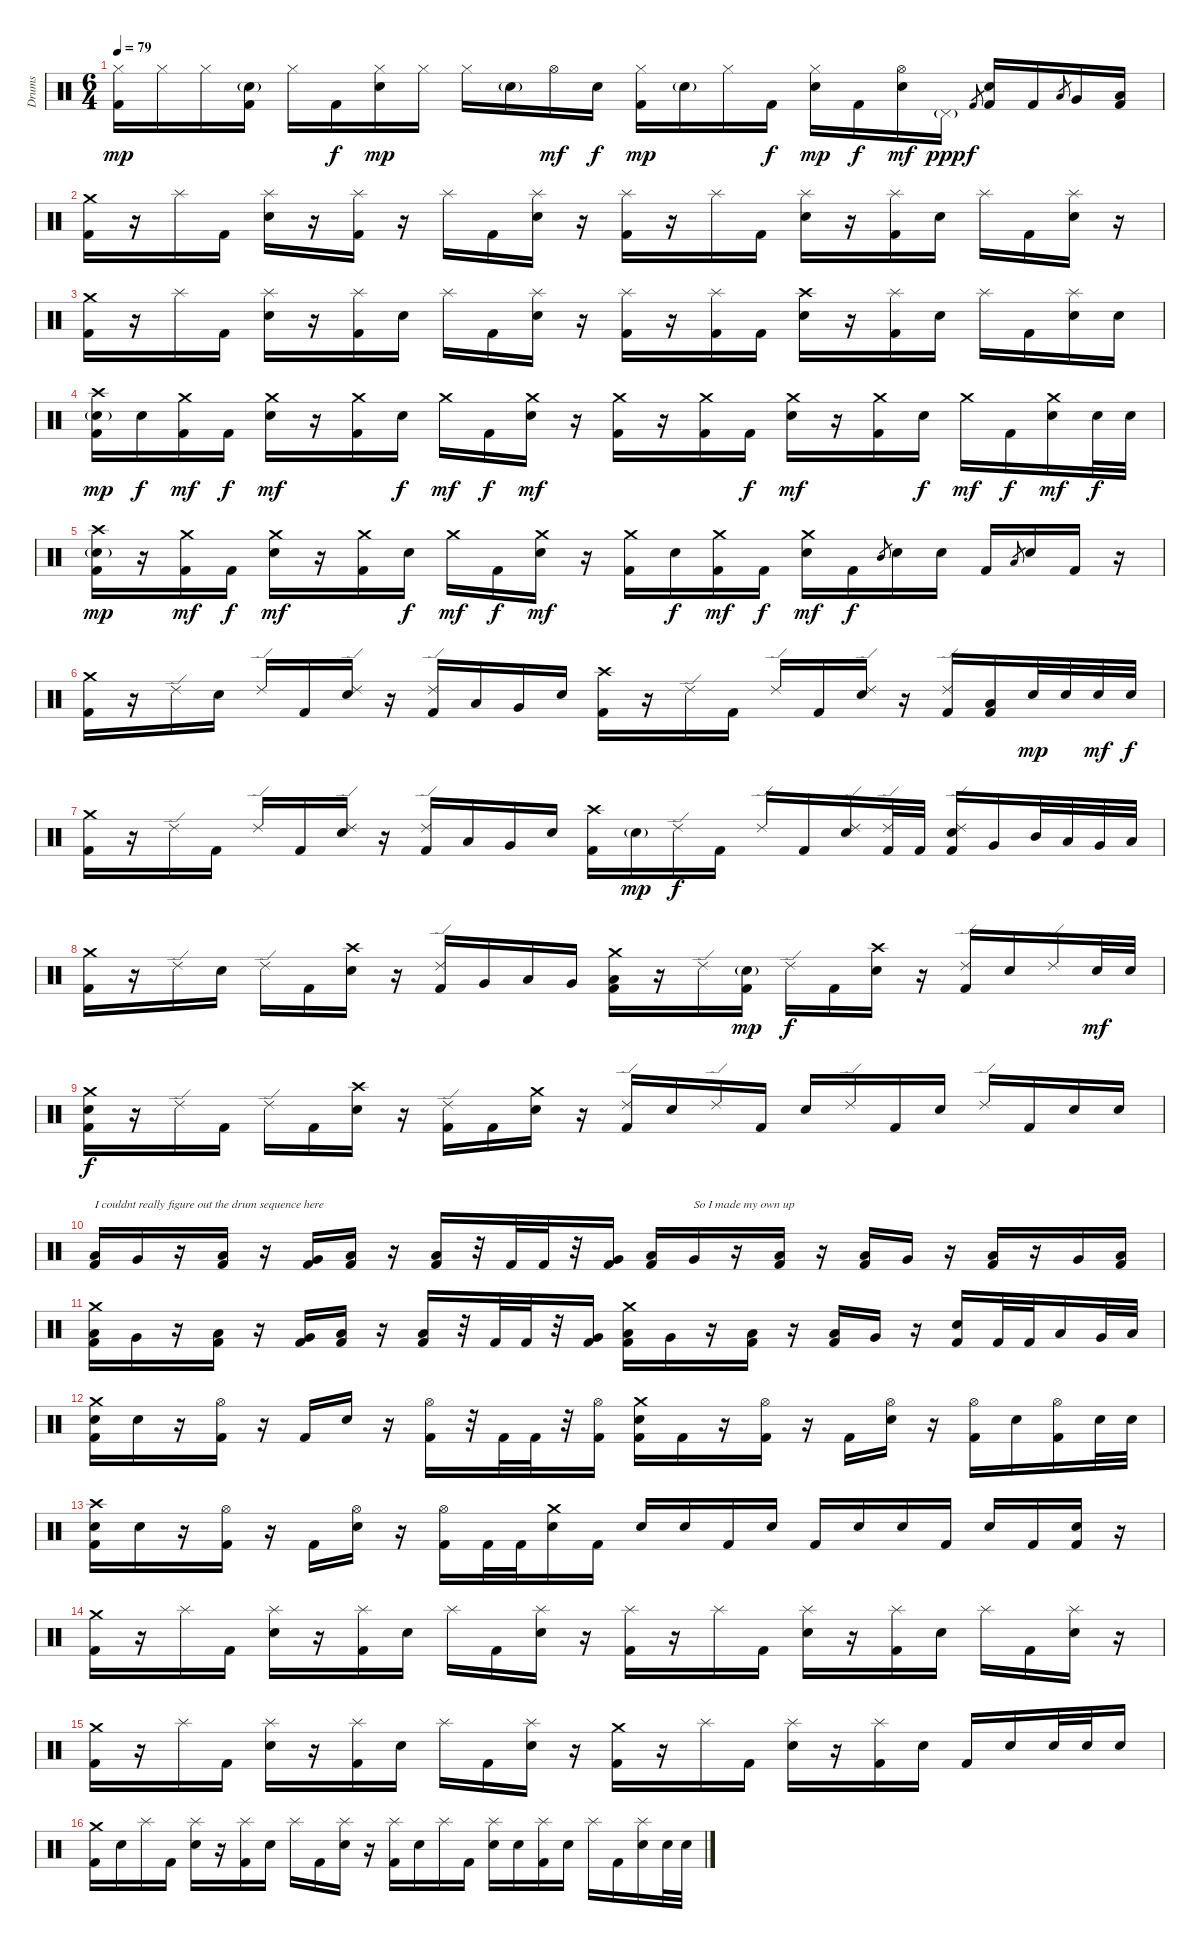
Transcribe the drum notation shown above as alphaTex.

\track ("Drums" "Drums") {instrument percussion}
\staff {score}
\articulation defaults
\ts (6 4)
\tempo 79
\clef neutral
\ks c
("Hi-Hat (closed)" "Kick (hit) 2").16{dy mp} "Hi-Hat (closed)".16 "Hi-Hat (closed)".16 ("Electric Snare (hit)"{g} "Kick (hit) 2").16 "Hi-Hat (closed)".16 "Kick (hit) 2".16{dy f} ("Hi-Hat (closed)" "Electric Snare (hit)").16{dy mp} "Hi-Hat (closed)".16 "Hi-Hat (closed)".16 "Electric Snare (hit)"{g}.16 "Hi-Hat (open)".16{dy mf} "Electric Snare (hit)".16{dy f} ("Hi-Hat (closed)" "Kick (hit) 2").16{dy mp} "Electric Snare (hit)"{g}.16 "Hi-Hat (closed)".16 "Kick (hit) 2".16{dy f} ("Hi-Hat (closed)" "Electric Snare (hit)").16{dy mp} "Kick (hit) 2".16{dy f} ("Hi-Hat (open)" "Electric Snare (hit)").16{dy mf} "Pedal Hi-Hat (hit)"{g}.16{dy ppp} "Kick (hit) 2".8{gr dy f} ("Electric Snare (hit)" "Kick (hit) 2").16 "Kick (hit) 2".16 "Low Tom (hit)".8{gr} "Very Low Tom (hit)".16 ("Low Floor Tom (hit)" "Kick (hit) 2").16 |
("Crash medium (hit)" "Kick (hit) 2").16 r.16 "Splash (hit)".16 "Kick (hit) 2".16 ("Splash (hit)" "Electric Snare (hit)").16 r.16 ("Splash (hit)" "Kick (hit) 2").16 r.16 "Splash (hit)".16 "Kick (hit) 2".16 ("Splash (hit)" "Electric Snare (hit)").16 r.16 ("Splash (hit)" "Kick (hit) 2").16 r.16 "Splash (hit)".16 "Kick (hit) 2".16 ("Splash (hit)" "Electric Snare (hit)").16 r.16 ("Splash (hit)" "Kick (hit) 2").16 "Electric Snare (hit)".16 "Splash (hit)".16 "Kick (hit) 2".16 ("Splash (hit)" "Electric Snare (hit)").16 r.16 |
("Crash medium (hit)" "Kick (hit) 2").16 r.16 "Splash (hit)".16 "Kick (hit) 2".16 ("Splash (hit)" "Electric Snare (hit)").16 r.16 ("Splash (hit)" "Kick (hit) 2").16 "Electric Snare (hit)".16 "Splash (hit)".16 "Kick (hit) 2".16 ("Splash (hit)" "Electric Snare (hit)").16 r.16 ("Splash (hit)" "Kick (hit) 2").16 r.16 ("Splash (hit)" "Kick (hit) 2").16 "Kick (hit) 2".16 ("Crash high (hit)" "Electric Snare (hit)").16 r.16 ("Splash (hit)" "Kick (hit) 2").16 "Electric Snare (hit)".16 "Splash (hit)".16 "Kick (hit) 2".16 ("Splash (hit)" "Electric Snare (hit)").16 "Electric Snare (hit)".16 |
("Crash high (hit)" "Electric Snare (hit)"{g} "Kick (hit) 2").16{dy mp} "Electric Snare (hit)".16{dy f} ("Crash medium (hit)" "Kick (hit) 2").16{dy mf} "Kick (hit) 2".16{dy f} ("Crash medium (hit)" "Electric Snare (hit)").16{dy mf} r.16 ("Crash medium (hit)" "Kick (hit) 2").16 "Electric Snare (hit)".16{dy f} "Crash medium (hit)".16{dy mf} "Kick (hit) 2".16{dy f} ("Crash medium (hit)" "Electric Snare (hit)").16{dy mf} r.16 ("Crash medium (hit)" "Kick (hit) 2").16 r.16 ("Crash medium (hit)" "Kick (hit) 2").16 "Kick (hit) 2".16{dy f} ("Crash medium (hit)" "Electric Snare (hit)").16{dy mf} r.16 ("Crash medium (hit)" "Kick (hit) 2").16 "Electric Snare (hit)".16{dy f} "Crash medium (hit)".16{dy mf} "Kick (hit) 2".16{dy f} ("Crash medium (hit)" "Electric Snare (hit)").16{dy mf} "Electric Snare (hit)".32{dy f} "Electric Snare (hit)".32 |
("Crash high (hit)" "Electric Snare (hit)"{g} "Kick (hit) 2").16{dy mp} r.16 ("Crash medium (hit)" "Kick (hit) 2").16{dy mf} "Kick (hit) 2".16{dy f} ("Crash medium (hit)" "Electric Snare (hit)").16{dy mf} r.16 ("Crash medium (hit)" "Kick (hit) 2").16 "Electric Snare (hit)".16{dy f} "Crash medium (hit)".16{dy mf} "Kick (hit) 2".16{dy f} ("Crash medium (hit)" "Electric Snare (hit)").16{dy mf} r.16 ("Crash medium (hit)" "Kick (hit) 2").16 "Electric Snare (hit)".16{dy f} ("Crash medium (hit)" "Kick (hit) 2").16{dy mf} "Kick (hit) 2".16{dy f} ("Crash medium (hit)" "Electric Snare (hit)").16{dy mf} "Kick (hit) 2".16{dy f} "Mid Tom (hit)".8{gr} "Electric Snare (hit)".16 "Electric Snare (hit)".16 "Kick (hit) 2".16 "Low Tom (hit)".8{gr} "Electric Snare (hit)".16 "Kick (hit) 2".16 r.16 |
("Crash medium (hit)" "Kick (hit) 2").16 r.16 "Ride (edge) 2".16 "Electric Snare (hit)".16 "Ride (edge) 2".16 "Kick (hit) 2".16 ("Ride (edge) 2" "Electric Snare (hit)").16 r.16 ("Ride (edge) 2" "Kick (hit) 2").16 "Low Tom (hit)".16 "Very Low Tom (hit)".16 "Electric Snare (hit)".16 ("Crash high (hit)" "Kick (hit) 2").16 r.16 "Ride (edge) 2".16 "Kick (hit) 2".16 "Ride (edge) 2".16 "Kick (hit) 2".16 ("Ride (edge) 2" "Electric Snare (hit)").16 r.16 ("Ride (edge) 2" "Kick (hit) 2").16 ("Low Floor Tom (hit)" "Kick (hit) 2").16 "Electric Snare (hit)".32{dy mp} "Electric Snare (hit)".32 "Electric Snare (hit)".32{dy mf} "Electric Snare (hit)".32{dy f} |
("Crash medium (hit)" "Kick (hit) 2").16 r.16 "Ride (edge) 2".16 "Kick (hit) 2".16 "Ride (edge) 2".16 "Kick (hit) 2".16 ("Ride (edge) 2" "Electric Snare (hit)").16 r.16 ("Ride (edge) 2" "Kick (hit) 2").16 "Low Tom (hit)".16 "Very Low Tom (hit)".16 "Electric Snare (hit)".16 ("Crash high (hit)" "Kick (hit) 2").16 "Electric Snare (hit)"{g}.16{dy mp} "Ride (edge) 2".16{dy f} "Kick (hit) 2".16 "Ride (edge) 2".16 "Kick (hit) 2".16 ("Ride (edge) 2" "Electric Snare (hit)").16 ("Ride (edge) 2" "Kick (hit) 2").32 "Kick (hit) 2".32 ("Ride (edge) 2" "Electric Snare (hit)" "Kick (hit) 2").16 "Very Low Tom (hit)".16 "Mid Tom (hit)".32 "Low Tom (hit)".32 "Very Low Tom (hit)".32 "Low Floor Tom (hit)".32 |
("Crash medium (hit)" "Kick (hit) 2").16 r.16 "Ride (edge) 2".16 "Electric Snare (hit)".16 "Ride (edge) 2".16 "Kick (hit) 2".16 ("Crash high (hit)" "Electric Snare (hit)").16 r.16 ("Ride (edge) 2" "Kick (hit) 2").16 "Very Low Tom (hit)".16 "Low Floor Tom (hit)".16 "Very Low Tom (hit)".16 ("Crash medium (hit)" "Low Floor Tom (hit)" "Kick (hit) 2").16 r.16 "Ride (edge) 2".16 ("Electric Snare (hit)"{g} "Kick (hit) 2").16{dy mp} "Ride (edge) 2".16{dy f} "Kick (hit) 2".16 ("Crash high (hit)" "Electric Snare (hit)").16 r.16 ("Ride (edge) 2" "Kick (hit) 2").16 "Electric Snare (hit)".16 "Ride (edge) 2".16 "Electric Snare (hit)".32{dy mf} "Electric Snare (hit)".32 |
("Crash medium (hit)" "Electric Snare (hit)" "Kick (hit) 2").16{dy f} r.16 "Ride (edge) 2".16 "Kick (hit) 2".16 "Ride (edge) 2".16 "Kick (hit) 2".16 ("Crash high (hit)" "Electric Snare (hit)").16 r.16 ("Ride (edge) 2" "Kick (hit) 2").16 "Kick (hit) 2".16 ("Crash medium (hit)" "Electric Snare (hit)").16 r.16 ("Ride (edge) 2" "Kick (hit) 2").16 "Electric Snare (hit)".16 "Ride (edge) 2".16 "Kick (hit) 2".16 "Electric Snare (hit)".16 "Ride (edge) 2".16 "Kick (hit) 2".16 "Electric Snare (hit)".16 "Ride (edge) 2".16 "Kick (hit) 2".16 "Electric Snare (hit)".16 "Electric Snare (hit)".16 |
("Low Floor Tom (hit)" "Kick (hit) 2").16{txt "I couldnt really figure out the drum sequence here"} "Very Low Tom (hit)".16 r.16 ("Low Floor Tom (hit)" "Kick (hit) 2").16 r.16 ("Very Low Tom (hit)" "Kick (hit) 2").16 ("Low Floor Tom (hit)" "Kick (hit) 2").16 r.16 ("Low Floor Tom (hit)" "Kick (hit) 2").16 r.32 "Kick (hit) 2".32 "Kick (hit) 2".32 r.32 ("Very Low Tom (hit)" "Kick (hit) 2").16 ("Low Floor Tom (hit)" "Kick (hit) 2").16 "Very Low Tom (hit)".16{txt "So I made my own up"} r.16 ("Low Floor Tom (hit)" "Kick (hit) 2").16 r.16 ("Low Floor Tom (hit)" "Kick (hit) 2").16 "Very Low Tom (hit)".16 r.16 ("Low Floor Tom (hit)" "Kick (hit) 2").16 r.16 "Very Low Tom (hit)".16 ("Low Floor Tom (hit)" "Kick (hit) 2").16 |
("Crash medium (hit)" "Low Floor Tom (hit)" "Kick (hit) 2").16 "Very Low Tom (hit)".16 r.16 ("Low Floor Tom (hit)" "Kick (hit) 2").16 r.16 ("Very Low Tom (hit)" "Kick (hit) 2").16 ("Low Floor Tom (hit)" "Kick (hit) 2").16 r.16 ("Low Floor Tom (hit)" "Kick (hit) 2").16 r.32 "Kick (hit) 2".32 "Kick (hit) 2".32 r.32 ("Very Low Tom (hit)" "Kick (hit) 2").16 ("Crash medium (hit)" "Low Floor Tom (hit)" "Kick (hit) 2").16 "Very Low Tom (hit)".16 r.16 ("Low Floor Tom (hit)" "Kick (hit) 2").16 r.16 ("Low Floor Tom (hit)" "Kick (hit) 2").16 "Very Low Tom (hit)".16 r.16 ("Electric Snare (hit)" "Kick (hit) 2").16 "Kick (hit) 2".32 "Kick (hit) 2".32 "Low Tom (hit)".16 "Very Low Tom (hit)".32 "Low Floor Tom (hit)".32 |
("Crash medium (hit)" "Electric Snare (hit)" "Kick (hit) 2").16 "Electric Snare (hit)".16 r.16 ("Hi-Hat (open)" "Kick (hit) 2").16 r.16 "Kick (hit) 2".16 "Electric Snare (hit)".16 r.16 ("Hi-Hat (open)" "Kick (hit) 2").16 r.32 "Kick (hit) 2".32 "Kick (hit) 2".32 r.32 ("Hi-Hat (open)" "Kick (hit) 2").16 ("Crash medium (hit)" "Electric Snare (hit)" "Kick (hit) 2").16 "Kick (hit) 2".16 r.16 ("Hi-Hat (open)" "Kick (hit) 2").16 r.16 "Kick (hit) 2".16 ("Hi-Hat (open)" "Electric Snare (hit)").16 r.16 ("Hi-Hat (open)" "Kick (hit) 2").16 "Electric Snare (hit)".16 ("Hi-Hat (open)" "Kick (hit) 2").16 "Electric Snare (hit)".32 "Electric Snare (hit)".32 |
("Crash high (hit)" "Electric Snare (hit)" "Kick (hit) 2").16 "Electric Snare (hit)".16 r.16 ("Hi-Hat (open)" "Kick (hit) 2").16 r.16 "Kick (hit) 2".16 ("Hi-Hat (open)" "Electric Snare (hit)").16 r.16 ("Hi-Hat (open)" "Kick (hit) 2").16 "Kick (hit) 2".32 "Kick (hit) 2".32 ("Crash medium (hit)" "Electric Snare (hit)").16 "Kick (hit) 2".16 "Electric Snare (hit)".16 "Electric Snare (hit)".16 "Kick (hit) 2".16 "Electric Snare (hit)".16 "Kick (hit) 2".16 "Electric Snare (hit)".16 "Electric Snare (hit)".16 "Kick (hit) 2".16 "Electric Snare (hit)".16 "Kick (hit) 2".16 ("Electric Snare (hit)" "Kick (hit) 2").16 r.16 |
("Crash medium (hit)" "Kick (hit) 2").16 r.16 "Splash (hit)".16 "Kick (hit) 2".16 ("Splash (hit)" "Electric Snare (hit)").16 r.16 ("Splash (hit)" "Kick (hit) 2").16 "Electric Snare (hit)".16 "Splash (hit)".16 "Kick (hit) 2".16 ("Splash (hit)" "Electric Snare (hit)").16 r.16 ("Splash (hit)" "Kick (hit) 2").16 r.16 "Splash (hit)".16 "Kick (hit) 2".16 ("Splash (hit)" "Electric Snare (hit)").16 r.16 ("Splash (hit)" "Kick (hit) 2").16 "Electric Snare (hit)".16 "Splash (hit)".16 "Kick (hit) 2".16 ("Splash (hit)" "Electric Snare (hit)").16 r.16 |
("Crash medium (hit)" "Kick (hit) 2").16 r.16 "Splash (hit)".16 "Kick (hit) 2".16 ("Splash (hit)" "Electric Snare (hit)").16 r.16 ("Splash (hit)" "Kick (hit) 2").16 "Electric Snare (hit)".16 "Splash (hit)".16 "Kick (hit) 2".16 ("Splash (hit)" "Electric Snare (hit)").16 r.16 ("Crash medium (hit)" "Kick (hit) 2").16 r.16 "Splash (hit)".16 "Kick (hit) 2".16 ("Splash (hit)" "Electric Snare (hit)").16 r.16 ("Splash (hit)" "Kick (hit) 2").16 "Electric Snare (hit)".16 "Kick (hit) 2".16 "Electric Snare (hit)".16 "Electric Snare (hit)".32 "Electric Snare (hit)".32 "Electric Snare (hit)".16 |
("Crash medium (hit)" "Kick (hit) 2").16 "Electric Snare (hit)".16 "Splash (hit)".16 "Kick (hit) 2".16 ("Splash (hit)" "Electric Snare (hit)").16 r.16 ("Splash (hit)" "Kick (hit) 2").16 "Electric Snare (hit)".16 "Splash (hit)".16 "Kick (hit) 2".16 ("Splash (hit)" "Electric Snare (hit)").16 r.16 ("Splash (hit)" "Kick (hit) 2").16 "Electric Snare (hit)".16 "Splash (hit)".16 "Kick (hit) 2".16 ("Splash (hit)" "Electric Snare (hit)").16 "Electric Snare (hit)".16 ("Splash (hit)" "Kick (hit) 2").16 "Electric Snare (hit)".16 "Splash (hit)".16 "Kick (hit) 2".16 ("Splash (hit)" "Electric Snare (hit)").16 "Electric Snare (hit)".32 "Electric Snare (hit)".32
